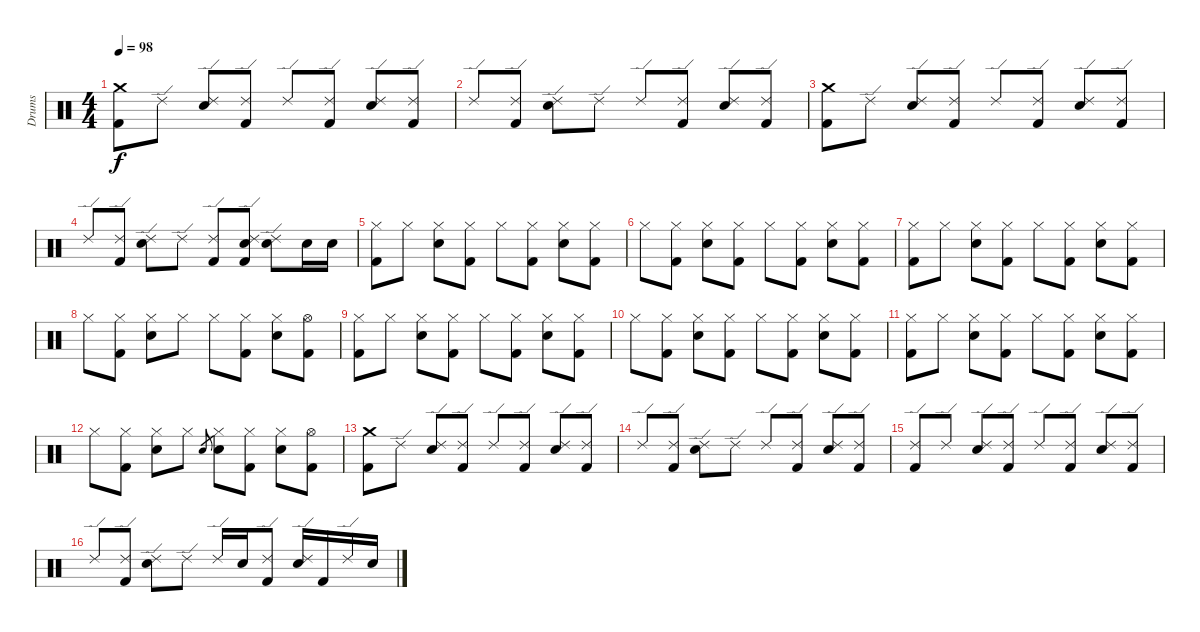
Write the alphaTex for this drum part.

\track ("Drums" "Drums") {instrument percussion}
\staff {score}
\articulation defaults
\ts (4 4)
\tempo 98
\clef neutral
\ks c
("Crash medium (hit)" "Kick (hit) 2").8{dy f} "Ride (edge) 2".8 ("Ride (edge) 2" "Electric Snare (hit)").8 ("Ride (edge) 2" "Kick (hit) 2").8 "Ride (edge) 2".8 ("Ride (edge) 2" "Kick (hit) 2").8 ("Ride (edge) 2" "Electric Snare (hit)").8 ("Ride (edge) 2" "Kick (hit) 2").8 |
"Ride (edge) 2".8 ("Ride (edge) 2" "Kick (hit) 2").8 ("Ride (edge) 2" "Electric Snare (hit)").8 "Ride (edge) 2".8 "Ride (edge) 2".8 ("Ride (edge) 2" "Kick (hit) 2").8 ("Ride (edge) 2" "Electric Snare (hit)").8 ("Ride (edge) 2" "Kick (hit) 2").8 |
("Crash medium (hit)" "Kick (hit) 2").8 "Ride (edge) 2".8 ("Ride (edge) 2" "Electric Snare (hit)").8 ("Ride (edge) 2" "Kick (hit) 2").8 "Ride (edge) 2".8 ("Ride (edge) 2" "Kick (hit) 2").8 ("Ride (edge) 2" "Electric Snare (hit)").8 ("Ride (edge) 2" "Kick (hit) 2").8 |
"Ride (edge) 2".8 ("Ride (edge) 2" "Kick (hit) 2").8 ("Ride (edge) 2" "Electric Snare (hit)").8 "Ride (edge) 2".8 ("Ride (edge) 2" "Kick (hit) 2").8 ("Ride (edge) 2" "Electric Snare (hit)" "Kick (hit) 2").8 ("Ride (edge) 2" "Electric Snare (hit)").8 "Electric Snare (hit)".16 "Electric Snare (hit)".16 |
("Hi-Hat (closed)" "Kick (hit) 2").8 "Hi-Hat (closed)".8 ("Hi-Hat (closed)" "Electric Snare (hit)").8 ("Hi-Hat (closed)" "Kick (hit) 2").8 "Hi-Hat (closed)".8 ("Hi-Hat (closed)" "Kick (hit) 2").8 ("Hi-Hat (closed)" "Electric Snare (hit)").8 ("Hi-Hat (closed)" "Kick (hit) 2").8 |
"Hi-Hat (closed)".8 ("Hi-Hat (closed)" "Kick (hit) 2").8 ("Hi-Hat (closed)" "Electric Snare (hit)").8 ("Hi-Hat (closed)" "Kick (hit) 2").8 "Hi-Hat (closed)".8 ("Hi-Hat (closed)" "Kick (hit) 2").8 ("Hi-Hat (closed)" "Electric Snare (hit)").8 ("Hi-Hat (closed)" "Kick (hit) 2").8 |
("Hi-Hat (closed)" "Kick (hit) 2").8 "Hi-Hat (closed)".8 ("Hi-Hat (closed)" "Electric Snare (hit)").8 ("Hi-Hat (closed)" "Kick (hit) 2").8 "Hi-Hat (closed)".8 ("Hi-Hat (closed)" "Kick (hit) 2").8 ("Hi-Hat (closed)" "Electric Snare (hit)").8 ("Hi-Hat (closed)" "Kick (hit) 2").8 |
"Hi-Hat (closed)".8 ("Hi-Hat (closed)" "Kick (hit) 2").8 ("Hi-Hat (closed)" "Electric Snare (hit)").8 "Hi-Hat (closed)".8 "Hi-Hat (closed)".8 ("Hi-Hat (closed)" "Kick (hit) 2").8 ("Hi-Hat (closed)" "Electric Snare (hit)").8 ("Hi-Hat (open)" "Kick (hit) 2").8 |
("Hi-Hat (closed)" "Kick (hit) 2").8 "Hi-Hat (closed)".8 ("Hi-Hat (closed)" "Electric Snare (hit)").8 ("Hi-Hat (closed)" "Kick (hit) 2").8 "Hi-Hat (closed)".8 ("Hi-Hat (closed)" "Kick (hit) 2").8 ("Hi-Hat (closed)" "Electric Snare (hit)").8 ("Hi-Hat (closed)" "Kick (hit) 2").8 |
"Hi-Hat (closed)".8 ("Hi-Hat (closed)" "Kick (hit) 2").8 ("Hi-Hat (closed)" "Electric Snare (hit)").8 ("Hi-Hat (closed)" "Kick (hit) 2").8 "Hi-Hat (closed)".8 ("Hi-Hat (closed)" "Kick (hit) 2").8 ("Hi-Hat (closed)" "Electric Snare (hit)").8 ("Hi-Hat (closed)" "Kick (hit) 2").8 |
("Hi-Hat (closed)" "Kick (hit) 2").8 "Hi-Hat (closed)".8 ("Hi-Hat (closed)" "Electric Snare (hit)").8 ("Hi-Hat (closed)" "Kick (hit) 2").8 "Hi-Hat (closed)".8 ("Hi-Hat (closed)" "Kick (hit) 2").8 ("Hi-Hat (closed)" "Electric Snare (hit)").8 ("Hi-Hat (closed)" "Kick (hit) 2").8 |
"Hi-Hat (closed)".8 ("Hi-Hat (closed)" "Kick (hit) 2").8 ("Hi-Hat (closed)" "Electric Snare (hit)").8 "Hi-Hat (closed)".8 "Electric Snare (hit)".8{gr} ("Hi-Hat (closed)" "Electric Snare (hit)").8 ("Hi-Hat (closed)" "Kick (hit) 2").8 ("Hi-Hat (closed)" "Electric Snare (hit)").8 ("Hi-Hat (open)" "Kick (hit) 2").8 |
("Crash medium (hit)" "Kick (hit) 2").8 "Ride (edge) 2".8 ("Ride (edge) 2" "Electric Snare (hit)").8 ("Ride (edge) 2" "Kick (hit) 2").8 "Ride (edge) 2".8 ("Ride (edge) 2" "Kick (hit) 2").8 ("Ride (edge) 2" "Electric Snare (hit)").8 ("Ride (edge) 2" "Kick (hit) 2").8 |
"Ride (edge) 2".8 ("Ride (edge) 2" "Kick (hit) 2").8 ("Ride (edge) 2" "Electric Snare (hit)").8 "Ride (edge) 2".8 "Ride (edge) 2".8 ("Ride (edge) 2" "Kick (hit) 2").8 ("Ride (edge) 2" "Electric Snare (hit)").8 ("Ride (edge) 2" "Kick (hit) 2").8 |
("Ride (edge) 2" "Kick (hit) 2").8 "Ride (edge) 2".8 ("Ride (edge) 2" "Electric Snare (hit)").8 ("Ride (edge) 2" "Kick (hit) 2").8 "Ride (edge) 2".8 ("Ride (edge) 2" "Kick (hit) 2").8 ("Ride (edge) 2" "Electric Snare (hit)").8 ("Ride (edge) 2" "Kick (hit) 2").8 |
"Ride (edge) 2".8 ("Ride (edge) 2" "Kick (hit) 2").8 ("Ride (edge) 2" "Electric Snare (hit)").8 "Ride (edge) 2".8 "Ride (edge) 2".16 "Electric Snare (hit)".16 ("Ride (edge) 2" "Kick (hit) 2").8 ("Ride (edge) 2" "Electric Snare (hit)").16 "Kick (hit) 2".16 "Ride (edge) 2".16 "Electric Snare (hit)".16
